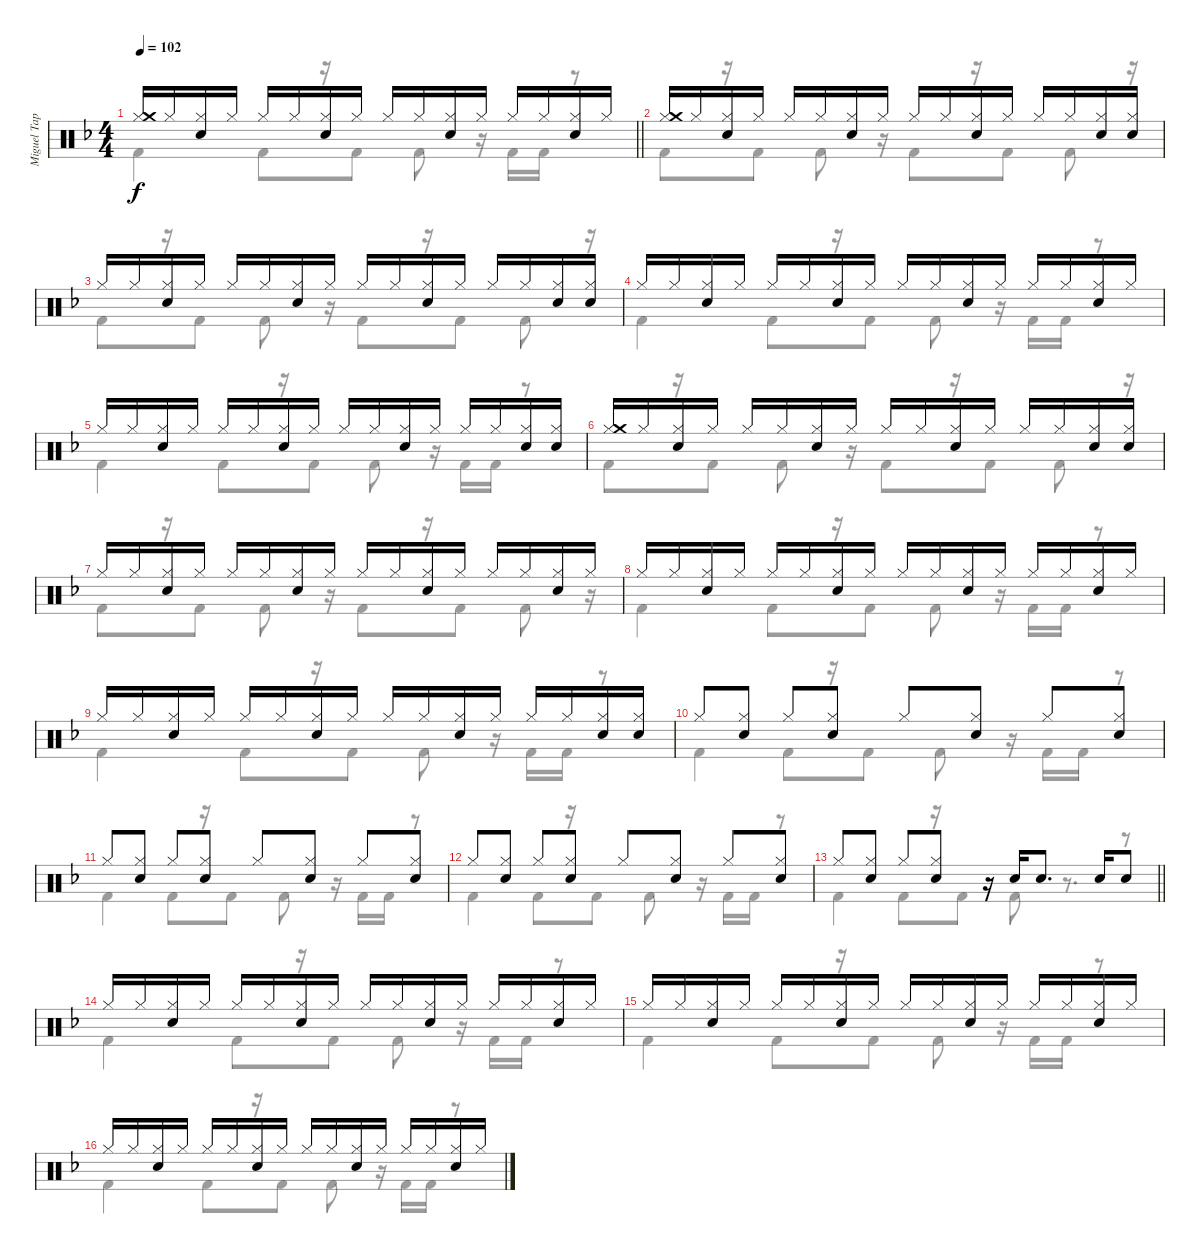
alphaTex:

\track ("Miguel Tapia (Batería)" "Miguel Tap") {instrument percussion}
\staff {score}
\articulation defaults
\voice
\ts (4 4)
\tempo 102
\clef neutral
\barLineRight lightlight
\ks f
("Hi-Hat (closed)" "Crash medium (hit)").16{dy f} "Hi-Hat (closed)".16 ("Hi-Hat (closed)" "Snare (hit) 2").16 "Hi-Hat (closed)".16 "Hi-Hat (closed)".16 "Hi-Hat (closed)".16 ("Hi-Hat (closed)" "Snare (hit) 2").16 "Hi-Hat (closed)".16 "Hi-Hat (closed)".16 "Hi-Hat (closed)".16 ("Hi-Hat (closed)" "Snare (hit) 2").16 "Hi-Hat (closed)".16 "Hi-Hat (closed)".16 "Hi-Hat (closed)".16 ("Hi-Hat (closed)" "Snare (hit) 2").16 "Hi-Hat (closed)".16 |
("Hi-Hat (closed)" "Crash medium (hit)").16 "Hi-Hat (closed)".16 ("Hi-Hat (closed)" "Snare (hit) 2").16 "Hi-Hat (closed)".16 "Hi-Hat (closed)".16 "Hi-Hat (closed)".16 ("Hi-Hat (closed)" "Snare (hit) 2").16 "Hi-Hat (closed)".16 "Hi-Hat (closed)".16 "Hi-Hat (closed)".16 ("Hi-Hat (closed)" "Snare (hit) 2").16 "Hi-Hat (closed)".16 "Hi-Hat (closed)".16 "Hi-Hat (closed)".16 ("Hi-Hat (closed)" "Snare (hit) 2").16 ("Hi-Hat (closed)" "Snare (hit) 2").16 |
"Hi-Hat (closed)".16 "Hi-Hat (closed)".16 ("Hi-Hat (closed)" "Snare (hit) 2").16 "Hi-Hat (closed)".16 "Hi-Hat (closed)".16 "Hi-Hat (closed)".16 ("Hi-Hat (closed)" "Snare (hit) 2").16 "Hi-Hat (closed)".16 "Hi-Hat (closed)".16 "Hi-Hat (closed)".16 ("Hi-Hat (closed)" "Snare (hit) 2").16 "Hi-Hat (closed)".16 "Hi-Hat (closed)".16 "Hi-Hat (closed)".16 ("Hi-Hat (closed)" "Snare (hit) 2").16 ("Hi-Hat (closed)" "Snare (hit) 2").16 |
"Hi-Hat (closed)".16 "Hi-Hat (closed)".16 ("Hi-Hat (closed)" "Snare (hit) 2").16 "Hi-Hat (closed)".16 "Hi-Hat (closed)".16 "Hi-Hat (closed)".16 ("Hi-Hat (closed)" "Snare (hit) 2").16 "Hi-Hat (closed)".16 "Hi-Hat (closed)".16 "Hi-Hat (closed)".16 ("Hi-Hat (closed)" "Snare (hit) 2").16 "Hi-Hat (closed)".16 "Hi-Hat (closed)".16 "Hi-Hat (closed)".16 ("Hi-Hat (closed)" "Snare (hit) 2").16 "Hi-Hat (closed)".16 |
"Hi-Hat (closed)".16 "Hi-Hat (closed)".16 ("Hi-Hat (closed)" "Snare (hit) 2").16 "Hi-Hat (closed)".16 "Hi-Hat (closed)".16 "Hi-Hat (closed)".16 ("Hi-Hat (closed)" "Snare (hit) 2").16 "Hi-Hat (closed)".16 "Hi-Hat (closed)".16 "Hi-Hat (closed)".16 ("Hi-Hat (closed)" "Snare (hit) 2").16 "Hi-Hat (closed)".16 "Hi-Hat (closed)".16 "Hi-Hat (closed)".16 ("Hi-Hat (closed)" "Snare (hit) 2").16 ("Hi-Hat (closed)" "Snare (hit) 2").16 |
("Hi-Hat (closed)" "Crash medium (hit)").16 "Hi-Hat (closed)".16 ("Hi-Hat (closed)" "Snare (hit) 2").16 "Hi-Hat (closed)".16 "Hi-Hat (closed)".16 "Hi-Hat (closed)".16 ("Hi-Hat (closed)" "Snare (hit) 2").16 "Hi-Hat (closed)".16 "Hi-Hat (closed)".16 "Hi-Hat (closed)".16 ("Hi-Hat (closed)" "Snare (hit) 2").16 "Hi-Hat (closed)".16 "Hi-Hat (closed)".16 "Hi-Hat (closed)".16 ("Hi-Hat (closed)" "Snare (hit) 2").16 ("Hi-Hat (closed)" "Snare (hit) 2").16 |
"Hi-Hat (closed)".16 "Hi-Hat (closed)".16 ("Hi-Hat (closed)" "Snare (hit) 2").16 "Hi-Hat (closed)".16 "Hi-Hat (closed)".16 "Hi-Hat (closed)".16 ("Hi-Hat (closed)" "Snare (hit) 2").16 "Hi-Hat (closed)".16 "Hi-Hat (closed)".16 "Hi-Hat (closed)".16 ("Hi-Hat (closed)" "Snare (hit) 2").16 "Hi-Hat (closed)".16 "Hi-Hat (closed)".16 "Hi-Hat (closed)".16 ("Hi-Hat (closed)" "Snare (hit) 2").16 "Hi-Hat (closed)".16 |
"Hi-Hat (closed)".16 "Hi-Hat (closed)".16 ("Hi-Hat (closed)" "Snare (hit) 2").16 "Hi-Hat (closed)".16 "Hi-Hat (closed)".16 "Hi-Hat (closed)".16 ("Hi-Hat (closed)" "Snare (hit) 2").16 "Hi-Hat (closed)".16 "Hi-Hat (closed)".16 "Hi-Hat (closed)".16 ("Hi-Hat (closed)" "Snare (hit) 2").16 "Hi-Hat (closed)".16 "Hi-Hat (closed)".16 "Hi-Hat (closed)".16 ("Hi-Hat (closed)" "Snare (hit) 2").16 "Hi-Hat (closed)".16 |
"Hi-Hat (closed)".16 "Hi-Hat (closed)".16 ("Hi-Hat (closed)" "Snare (hit) 2").16 "Hi-Hat (closed)".16 "Hi-Hat (closed)".16 "Hi-Hat (closed)".16 ("Hi-Hat (closed)" "Snare (hit) 2").16 "Hi-Hat (closed)".16 "Hi-Hat (closed)".16 "Hi-Hat (closed)".16 ("Hi-Hat (closed)" "Snare (hit) 2").16 "Hi-Hat (closed)".16 "Hi-Hat (closed)".16 "Hi-Hat (closed)".16 ("Hi-Hat (closed)" "Snare (hit) 2").16 ("Hi-Hat (closed)" "Snare (hit) 2").16 |
"Hi-Hat (closed)".8 ("Hi-Hat (closed)" "Snare (hit) 2").8 "Hi-Hat (closed)".8 ("Hi-Hat (closed)" "Snare (hit) 2").8 "Hi-Hat (closed)".8 ("Hi-Hat (closed)" "Snare (hit) 2").8 "Hi-Hat (closed)".8 ("Hi-Hat (closed)" "Snare (hit) 2").8 |
"Hi-Hat (closed)".8 ("Hi-Hat (closed)" "Snare (hit) 2").8 "Hi-Hat (closed)".8 ("Hi-Hat (closed)" "Snare (hit) 2").8 "Hi-Hat (closed)".8 ("Hi-Hat (closed)" "Snare (hit) 2").8 "Hi-Hat (closed)".8 ("Hi-Hat (closed)" "Snare (hit) 2").8 |
"Hi-Hat (closed)".8 ("Hi-Hat (closed)" "Snare (hit) 2").8 "Hi-Hat (closed)".8 ("Hi-Hat (closed)" "Snare (hit) 2").8 "Hi-Hat (closed)".8 ("Hi-Hat (closed)" "Snare (hit) 2").8 "Hi-Hat (closed)".8 ("Hi-Hat (closed)" "Snare (hit) 2").8 |
\barLineRight lightlight "Hi-Hat (closed)".8
("Hi-Hat (closed)" "Snare (hit) 2").8 "Hi-Hat (closed)".8 ("Hi-Hat (closed)" "Snare (hit) 2").8 r.16 "Snare (hit) 2".16 "Snare (hit) 2".8{d} "Snare (hit) 2".16 "Snare (hit) 2".8 |
"Hi-Hat (closed)".16 "Hi-Hat (closed)".16 ("Hi-Hat (closed)" "Snare (hit) 2").16 "Hi-Hat (closed)".16 "Hi-Hat (closed)".16 "Hi-Hat (closed)".16 ("Hi-Hat (closed)" "Snare (hit) 2").16 "Hi-Hat (closed)".16 "Hi-Hat (closed)".16 "Hi-Hat (closed)".16 ("Hi-Hat (closed)" "Snare (hit) 2").16 "Hi-Hat (closed)".16 "Hi-Hat (closed)".16 "Hi-Hat (closed)".16 ("Hi-Hat (closed)" "Snare (hit) 2").16 "Hi-Hat (closed)".16 |
"Hi-Hat (closed)".16 "Hi-Hat (closed)".16 ("Hi-Hat (closed)" "Snare (hit) 2").16 "Hi-Hat (closed)".16 "Hi-Hat (closed)".16 "Hi-Hat (closed)".16 ("Hi-Hat (closed)" "Snare (hit) 2").16 "Hi-Hat (closed)".16 "Hi-Hat (closed)".16 "Hi-Hat (closed)".16 ("Hi-Hat (closed)" "Snare (hit) 2").16 "Hi-Hat (closed)".16 "Hi-Hat (closed)".16 "Hi-Hat (closed)".16 ("Hi-Hat (closed)" "Snare (hit) 2").16 "Hi-Hat (closed)".16 |
"Hi-Hat (closed)".16 "Hi-Hat (closed)".16 ("Hi-Hat (closed)" "Snare (hit) 2").16 "Hi-Hat (closed)".16 "Hi-Hat (closed)".16 "Hi-Hat (closed)".16 ("Hi-Hat (closed)" "Snare (hit) 2").16 "Hi-Hat (closed)".16 "Hi-Hat (closed)".16 "Hi-Hat (closed)".16 ("Hi-Hat (closed)" "Snare (hit) 2").16 "Hi-Hat (closed)".16 "Hi-Hat (closed)".16 "Hi-Hat (closed)".16 ("Hi-Hat (closed)" "Snare (hit) 2").16 "Hi-Hat (closed)".16
\voice
\clef neutral
\ottava regular
\simile none
\barLineRight lightlight
\ks f "Kick (hit) 2".4{dy f} "Kick (hit) 2".8
r.16 "Kick (hit) 2".8 "Kick (hit) 2".8 r.16 "Kick (hit) 2".16 "Kick (hit) 2".16 r.8 |
"Kick (hit) 2".8 r.16 "Kick (hit) 2".8 "Kick (hit) 2".8 r.16 "Kick (hit) 2".8 r.16 "Kick (hit) 2".8 "Kick (hit) 2".8 r.16 |
"Kick (hit) 2".8 r.16 "Kick (hit) 2".8 "Kick (hit) 2".8 r.16 "Kick (hit) 2".8 r.16 "Kick (hit) 2".8 "Kick (hit) 2".8 r.16 |
"Kick (hit) 2".4 "Kick (hit) 2".8 r.16 "Kick (hit) 2".8 "Kick (hit) 2".8 r.16 "Kick (hit) 2".16 "Kick (hit) 2".16 r.8 |
"Kick (hit) 2".4 "Kick (hit) 2".8 r.16 "Kick (hit) 2".8 "Kick (hit) 2".8 r.16 "Kick (hit) 2".16 "Kick (hit) 2".16 r.8 |
"Kick (hit) 2".8 r.16 "Kick (hit) 2".8 "Kick (hit) 2".8 r.16 "Kick (hit) 2".8 r.16 "Kick (hit) 2".8 "Kick (hit) 2".8 r.16 |
"Kick (hit) 2".8 r.16 "Kick (hit) 2".8 "Kick (hit) 2".8 r.16 "Kick (hit) 2".8 r.16 "Kick (hit) 2".8 "Kick (hit) 2".8 r.16 |
"Kick (hit) 2".4 "Kick (hit) 2".8 r.16 "Kick (hit) 2".8 "Kick (hit) 2".8 r.16 "Kick (hit) 2".16 "Kick (hit) 2".16 r.8 |
"Kick (hit) 2".4 "Kick (hit) 2".8 r.16 "Kick (hit) 2".8 "Kick (hit) 2".8 r.16 "Kick (hit) 2".16 "Kick (hit) 2".16 r.8 |
"Kick (hit) 2".4 "Kick (hit) 2".8 r.16 "Kick (hit) 2".8 "Kick (hit) 2".8 r.16 "Kick (hit) 2".16 "Kick (hit) 2".16 r.8 |
"Kick (hit) 2".4 "Kick (hit) 2".8 r.16 "Kick (hit) 2".8 "Kick (hit) 2".8 r.16 "Kick (hit) 2".16 "Kick (hit) 2".16 r.8 |
"Kick (hit) 2".4 "Kick (hit) 2".8 r.16 "Kick (hit) 2".8 "Kick (hit) 2".8 r.16 "Kick (hit) 2".16 "Kick (hit) 2".16 r.8 |
\barLineRight lightlight "Kick (hit) 2".4 "Kick (hit) 2".8
r.16 "Kick (hit) 2".8 "Kick (hit) 2".8 r.8{d} r.8 |
"Kick (hit) 2".4 "Kick (hit) 2".8 r.16 "Kick (hit) 2".8 "Kick (hit) 2".8 r.16 "Kick (hit) 2".16 "Kick (hit) 2".16 r.8 |
"Kick (hit) 2".4 "Kick (hit) 2".8 r.16 "Kick (hit) 2".8 "Kick (hit) 2".8 r.16 "Kick (hit) 2".16 "Kick (hit) 2".16 r.8 |
"Kick (hit) 2".4 "Kick (hit) 2".8 r.16 "Kick (hit) 2".8 "Kick (hit) 2".8 r.16 "Kick (hit) 2".16 "Kick (hit) 2".16 r.8
